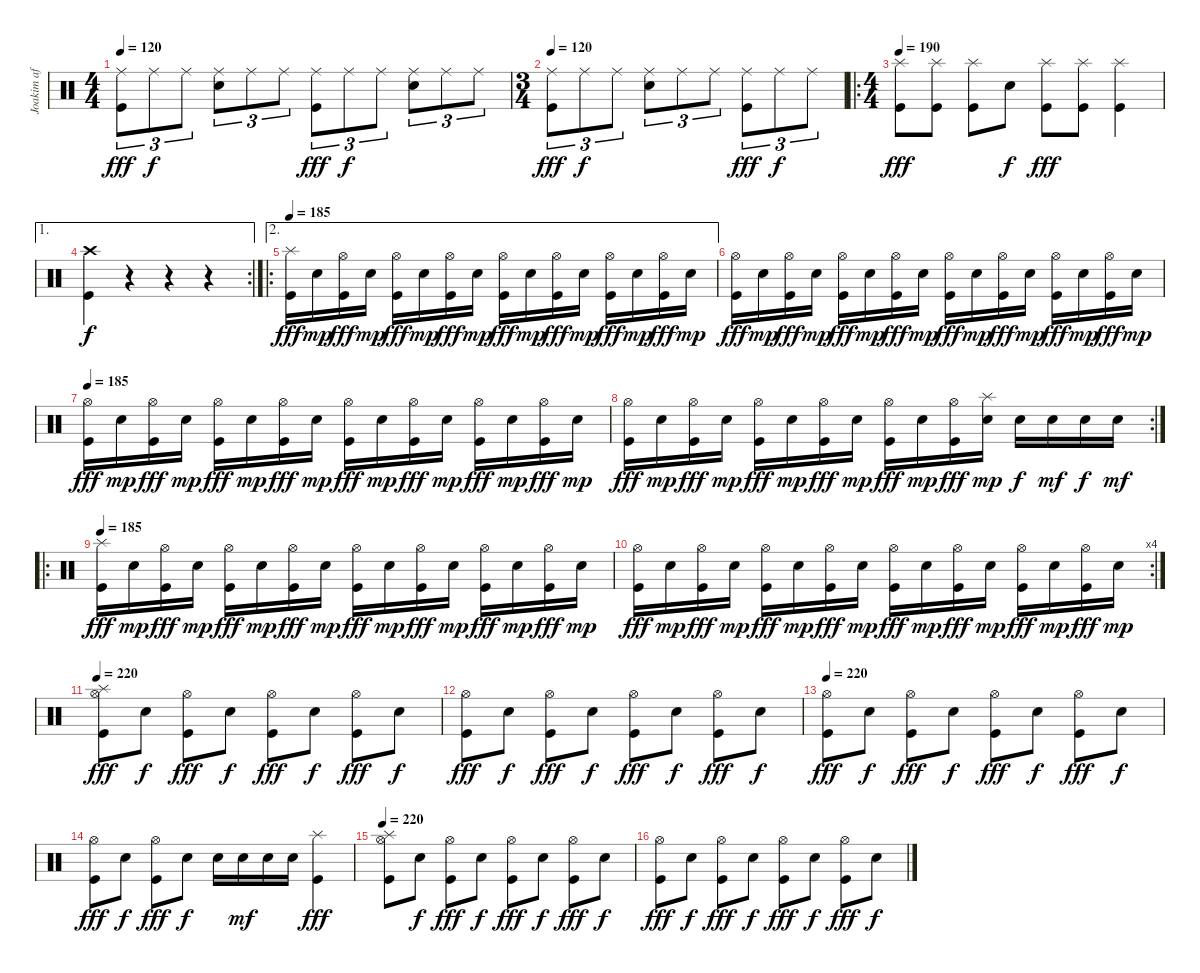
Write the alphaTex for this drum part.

\track ("Joakim af Grave" "Joakim af ") {instrument percussion}
\staff {score}
\articulation defaults
\ts (4 4)
\tempo 120
\clef neutral
\ks c
("Ride (middle)" "Kick (hit)").8{tu (3 2) dy fff} "Ride (middle)".8{tu (3 2) dy f} "Ride (middle)".8{tu (3 2)} ("Electric Snare (hit)" "Ride (middle)").8{tu (3 2)} "Ride (middle)".8{tu (3 2)} "Ride (middle)".8{tu (3 2)} ("Ride (middle)" "Kick (hit)").8{tu (3 2) dy fff} "Ride (middle)".8{tu (3 2) dy f} "Ride (middle)".8{tu (3 2)} ("Electric Snare (hit)" "Ride (middle)").8{tu (3 2)} "Ride (middle)".8{tu (3 2)} "Ride (middle)".8{tu (3 2)} |
\ts (3 4)
\tempo 120
("Ride (middle)" "Kick (hit)").8{tu (3 2) dy fff} "Ride (middle)".8{tu (3 2) dy f} "Ride (middle)".8{tu (3 2)} ("Electric Snare (hit)" "Ride (middle)").8{tu (3 2)} "Ride (middle)".8{tu (3 2)} "Ride (middle)".8{tu (3 2)} ("Ride (middle)" "Kick (hit)").8{tu (3 2) dy fff} "Ride (middle)".8{tu (3 2) dy f} "Ride (middle)".8{tu (3 2)} |
\ro
\ts (4 4)
\tempo 190
("Splash (hit)" "Kick (hit)").8{dy fff} ("Splash (hit)" "Kick (hit)").8 ("Splash (hit)" "Kick (hit)").8 "Snare (hit)".8{dy f} ("Splash (hit)" "Kick (hit)").8{dy fff} ("Splash (hit)" "Kick (hit)").8 ("Splash (hit)" "Kick (hit)").4 |
\ae 1
\rc 2
("Crash high (hit)" "Kick (hit)").4{dy f} r.4 r.4 r.4 |
\ae 2
\ro
\tempo 185
("Splash (hit)" "Kick (hit)").16{dy fff} "Electric Snare (hit)".16{dy mp} ("Hi-Hat (open)" "Kick (hit)").16{dy fff} "Electric Snare (hit)".16{dy mp} ("Hi-Hat (open)" "Kick (hit)").16{dy fff} "Electric Snare (hit)".16{dy mp} ("Hi-Hat (open)" "Kick (hit)").16{dy fff} "Electric Snare (hit)".16{dy mp} ("Hi-Hat (open)" "Kick (hit)").16{dy fff} "Electric Snare (hit)".16{dy mp} ("Hi-Hat (open)" "Kick (hit)").16{dy fff} "Electric Snare (hit)".16{dy mp} ("Hi-Hat (open)" "Kick (hit)").16{dy fff} "Electric Snare (hit)".16{dy mp} ("Hi-Hat (open)" "Kick (hit)").16{dy fff} "Electric Snare (hit)".16{dy mp} |
("Hi-Hat (open)" "Kick (hit)").16{dy fff} "Electric Snare (hit)".16{dy mp} ("Hi-Hat (open)" "Kick (hit)").16{dy fff} "Electric Snare (hit)".16{dy mp} ("Hi-Hat (open)" "Kick (hit)").16{dy fff} "Electric Snare (hit)".16{dy mp} ("Hi-Hat (open)" "Kick (hit)").16{dy fff} "Electric Snare (hit)".16{dy mp} ("Hi-Hat (open)" "Kick (hit)").16{dy fff} "Electric Snare (hit)".16{dy mp} ("Hi-Hat (open)" "Kick (hit)").16{dy fff} "Electric Snare (hit)".16{dy mp} ("Hi-Hat (open)" "Kick (hit)").16{dy fff} "Electric Snare (hit)".16{dy mp} ("Hi-Hat (open)" "Kick (hit)").16{dy fff} "Electric Snare (hit)".16{dy mp} |
\tempo 185
("Hi-Hat (open)" "Kick (hit)").16{dy fff} "Electric Snare (hit)".16{dy mp} ("Hi-Hat (open)" "Kick (hit)").16{dy fff} "Electric Snare (hit)".16{dy mp} ("Hi-Hat (open)" "Kick (hit)").16{dy fff} "Electric Snare (hit)".16{dy mp} ("Hi-Hat (open)" "Kick (hit)").16{dy fff} "Electric Snare (hit)".16{dy mp} ("Hi-Hat (open)" "Kick (hit)").16{dy fff} "Electric Snare (hit)".16{dy mp} ("Hi-Hat (open)" "Kick (hit)").16{dy fff} "Electric Snare (hit)".16{dy mp} ("Hi-Hat (open)" "Kick (hit)").16{dy fff} "Electric Snare (hit)".16{dy mp} ("Hi-Hat (open)" "Kick (hit)").16{dy fff} "Electric Snare (hit)".16{dy mp} |
\rc 2
("Hi-Hat (open)" "Kick (hit)").16{dy fff} "Electric Snare (hit)".16{dy mp} ("Hi-Hat (open)" "Kick (hit)").16{dy fff} "Electric Snare (hit)".16{dy mp} ("Hi-Hat (open)" "Kick (hit)").16{dy fff} "Electric Snare (hit)".16{dy mp} ("Hi-Hat (open)" "Kick (hit)").16{dy fff} "Electric Snare (hit)".16{dy mp} ("Hi-Hat (open)" "Kick (hit)").16{dy fff} "Electric Snare (hit)".16{dy mp} ("Hi-Hat (open)" "Kick (hit)").16{dy fff} ("Splash (hit)" "Electric Snare (hit)").16{dy mp} "Electric Snare (hit)".16{dy f} "Electric Snare (hit)".16{dy mf} "Electric Snare (hit)".16{dy f} "Electric Snare (hit)".16{dy mf} |
\ro
\tempo 185
("Splash (hit)" "Kick (hit)").16{dy fff} "Electric Snare (hit)".16{dy mp} ("Hi-Hat (open)" "Kick (hit)").16{dy fff} "Electric Snare (hit)".16{dy mp} ("Hi-Hat (open)" "Kick (hit)").16{dy fff} "Electric Snare (hit)".16{dy mp} ("Hi-Hat (open)" "Kick (hit)").16{dy fff} "Electric Snare (hit)".16{dy mp} ("Hi-Hat (open)" "Kick (hit)").16{dy fff} "Electric Snare (hit)".16{dy mp} ("Hi-Hat (open)" "Kick (hit)").16{dy fff} "Electric Snare (hit)".16{dy mp} ("Hi-Hat (open)" "Kick (hit)").16{dy fff} "Electric Snare (hit)".16{dy mp} ("Hi-Hat (open)" "Kick (hit)").16{dy fff} "Electric Snare (hit)".16{dy mp} |
\rc 4
("Hi-Hat (open)" "Kick (hit)").16{dy fff} "Electric Snare (hit)".16{dy mp} ("Hi-Hat (open)" "Kick (hit)").16{dy fff} "Electric Snare (hit)".16{dy mp} ("Hi-Hat (open)" "Kick (hit)").16{dy fff} "Electric Snare (hit)".16{dy mp} ("Hi-Hat (open)" "Kick (hit)").16{dy fff} "Electric Snare (hit)".16{dy mp} ("Hi-Hat (open)" "Kick (hit)").16{dy fff} "Electric Snare (hit)".16{dy mp} ("Hi-Hat (open)" "Kick (hit)").16{dy fff} "Electric Snare (hit)".16{dy mp} ("Hi-Hat (open)" "Kick (hit)").16{dy fff} "Electric Snare (hit)".16{dy mp} ("Hi-Hat (open)" "Kick (hit)").16{dy fff} "Electric Snare (hit)".16{dy mp} |
\tempo 220
("Splash (hit)" "Hi-Hat (open)" "Kick (hit)").8{dy fff} "Electric Snare (hit)".8{dy f} ("Hi-Hat (open)" "Kick (hit)").8{dy fff} "Electric Snare (hit)".8{dy f} ("Hi-Hat (open)" "Kick (hit)").8{dy fff} "Electric Snare (hit)".8{dy f} ("Hi-Hat (open)" "Kick (hit)").8{dy fff} "Electric Snare (hit)".8{dy f} |
("Hi-Hat (open)" "Kick (hit)").8{dy fff} "Electric Snare (hit)".8{dy f} ("Hi-Hat (open)" "Kick (hit)").8{dy fff} "Electric Snare (hit)".8{dy f} ("Hi-Hat (open)" "Kick (hit)").8{dy fff} "Electric Snare (hit)".8{dy f} ("Hi-Hat (open)" "Kick (hit)").8{dy fff} "Electric Snare (hit)".8{dy f} |
\tempo 220
("Hi-Hat (open)" "Kick (hit)").8{dy fff} "Electric Snare (hit)".8{dy f} ("Hi-Hat (open)" "Kick (hit)").8{dy fff} "Electric Snare (hit)".8{dy f} ("Hi-Hat (open)" "Kick (hit)").8{dy fff} "Electric Snare (hit)".8{dy f} ("Hi-Hat (open)" "Kick (hit)").8{dy fff} "Electric Snare (hit)".8{dy f} |
("Hi-Hat (open)" "Kick (hit)").8{dy fff} "Electric Snare (hit)".8{dy f} ("Hi-Hat (open)" "Kick (hit)").8{dy fff} "Electric Snare (hit)".8{dy f} "Electric Snare (hit)".16 "Electric Snare (hit)".16{dy mf} "Electric Snare (hit)".16 "Electric Snare (hit)".16 ("Splash (hit)" "Kick (hit)").4{dy fff} |
\tempo 220
("Splash (hit)" "Hi-Hat (open)" "Kick (hit)").8 "Electric Snare (hit)".8{dy f} ("Hi-Hat (open)" "Kick (hit)").8{dy fff} "Electric Snare (hit)".8{dy f} ("Hi-Hat (open)" "Kick (hit)").8{dy fff} "Electric Snare (hit)".8{dy f} ("Hi-Hat (open)" "Kick (hit)").8{dy fff} "Electric Snare (hit)".8{dy f} |
("Hi-Hat (open)" "Kick (hit)").8{dy fff} "Electric Snare (hit)".8{dy f} ("Hi-Hat (open)" "Kick (hit)").8{dy fff} "Electric Snare (hit)".8{dy f} ("Hi-Hat (open)" "Kick (hit)").8{dy fff} "Electric Snare (hit)".8{dy f} ("Hi-Hat (open)" "Kick (hit)").8{dy fff} "Electric Snare (hit)".8{dy f}
